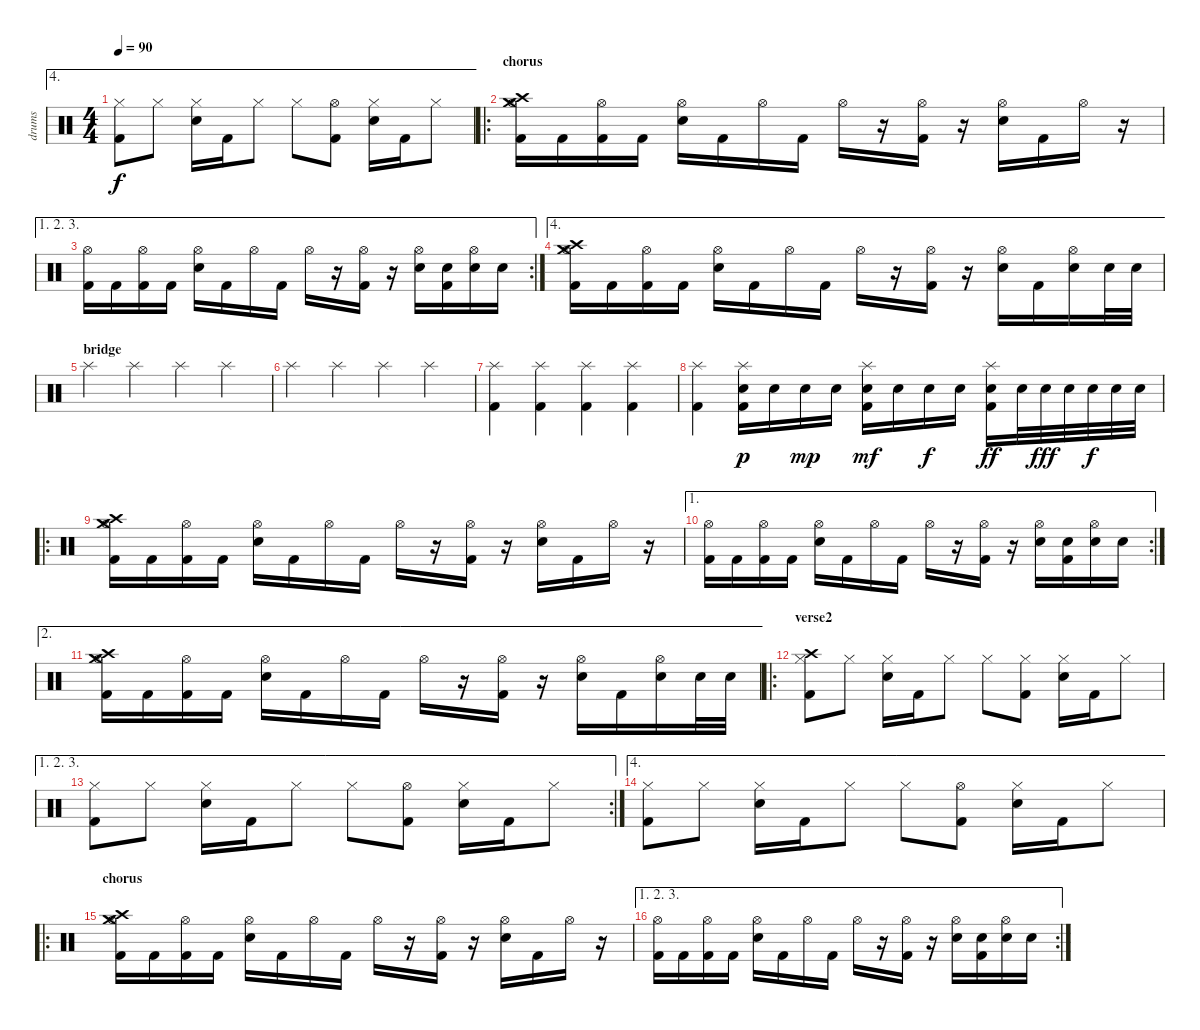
\track ("drums" "drums") {instrument percussion}
\staff {score}
\articulation defaults
\ae 4
\ts (4 4)
\tempo 90
\clef neutral
\ks c
("Hi-Hat (closed)" "Kick (hit) 2").8{dy f} "Hi-Hat (closed)".8 ("Hi-Hat (closed)" "Electric Snare (hit)").16 "Kick (hit) 2".16 "Hi-Hat (closed)".8 "Hi-Hat (closed)".8 ("Hi-Hat (open)" "Kick (hit) 2").8 ("Hi-Hat (closed)" "Electric Snare (hit)").16 "Kick (hit) 2".16 "Hi-Hat (closed)".8 |
\ro
\section ("" "chorus")
("Crash high (hit)" "Crash medium (hit)" "Hi-Hat (open)" "Kick (hit) 2").16 "Kick (hit) 2".16 ("Hi-Hat (open)" "Kick (hit) 2").16 "Kick (hit) 2".16 ("Hi-Hat (open)" "Electric Snare (hit)").16 "Kick (hit) 2".16 "Hi-Hat (open)".16 "Kick (hit) 2".16 "Hi-Hat (open)".16 r.16 ("Hi-Hat (open)" "Kick (hit) 2").16 r.16 ("Hi-Hat (open)" "Electric Snare (hit)").16 "Kick (hit) 2".16 "Hi-Hat (open)".16 r.16 |
\ae (1 2 3)
\rc 2
("Hi-Hat (open)" "Kick (hit) 2").16 "Kick (hit) 2".16 ("Hi-Hat (open)" "Kick (hit) 2").16 "Kick (hit) 2".16 ("Hi-Hat (open)" "Electric Snare (hit)").16 "Kick (hit) 2".16 "Hi-Hat (open)".16 "Kick (hit) 2".16 "Hi-Hat (open)".16 r.16 ("Hi-Hat (open)" "Kick (hit) 2").16 r.16 ("Hi-Hat (open)" "Electric Snare (hit)").16 ("Electric Snare (hit)" "Kick (hit) 2").16 ("Hi-Hat (open)" "Electric Snare (hit)").16 "Electric Snare (hit)".16 |
\ae 4
("Crash high (hit)" "Crash medium (hit)" "Hi-Hat (open)" "Kick (hit) 2").16 "Kick (hit) 2".16 ("Hi-Hat (open)" "Kick (hit) 2").16 "Kick (hit) 2".16 ("Hi-Hat (open)" "Electric Snare (hit)").16 "Kick (hit) 2".16 "Hi-Hat (open)".16 "Kick (hit) 2".16 "Hi-Hat (open)".16 r.16 ("Hi-Hat (open)" "Kick (hit) 2").16 r.16 ("Hi-Hat (open)" "Electric Snare (hit)").16 "Kick (hit) 2".16 ("Hi-Hat (open)" "Electric Snare (hit)").16 "Electric Snare (hit)".32 "Electric Snare (hit)".32 |
\section ("" "bridge")
"Splash (hit)".4 "Splash (hit)".4 "Splash (hit)".4 "Splash (hit)".4 |
"Splash (hit)".4 "Splash (hit)".4 "Splash (hit)".4 "Splash (hit)".4 |
("Splash (hit)" "Kick (hit) 2").4 ("Splash (hit)" "Kick (hit) 2").4 ("Splash (hit)" "Kick (hit) 2").4 ("Splash (hit)" "Kick (hit) 2").4 |
("Splash (hit)" "Kick (hit) 2").4 ("Splash (hit)" "Electric Snare (hit)" "Kick (hit) 2").16{dy p} "Electric Snare (hit)".16 "Electric Snare (hit)".16{dy mp} "Electric Snare (hit)".16 ("Splash (hit)" "Electric Snare (hit)" "Kick (hit) 2").16{dy mf} "Electric Snare (hit)".16 "Electric Snare (hit)".16{dy f} "Electric Snare (hit)".16 ("Splash (hit)" "Electric Snare (hit)" "Kick (hit) 2").16{dy ff} "Electric Snare (hit)".32 "Electric Snare (hit)".32{dy fff} "Electric Snare (hit)".32 "Electric Snare (hit)".32{dy f} "Electric Snare (hit)".32 "Electric Snare (hit)".32 |
\ro
("Crash high (hit)" "Crash medium (hit)" "Hi-Hat (open)" "Kick (hit) 2").16 "Kick (hit) 2".16 ("Hi-Hat (open)" "Kick (hit) 2").16 "Kick (hit) 2".16 ("Hi-Hat (open)" "Electric Snare (hit)").16 "Kick (hit) 2".16 "Hi-Hat (open)".16 "Kick (hit) 2".16 "Hi-Hat (open)".16 r.16 ("Hi-Hat (open)" "Kick (hit) 2").16 r.16 ("Hi-Hat (open)" "Electric Snare (hit)").16 "Kick (hit) 2".16 "Hi-Hat (open)".16 r.16 |
\ae 1
\rc 2
("Hi-Hat (open)" "Kick (hit) 2").16 "Kick (hit) 2".16 ("Hi-Hat (open)" "Kick (hit) 2").16 "Kick (hit) 2".16 ("Hi-Hat (open)" "Electric Snare (hit)").16 "Kick (hit) 2".16 "Hi-Hat (open)".16 "Kick (hit) 2".16 "Hi-Hat (open)".16 r.16 ("Hi-Hat (open)" "Kick (hit) 2").16 r.16 ("Hi-Hat (open)" "Electric Snare (hit)").16 ("Electric Snare (hit)" "Kick (hit) 2").16 ("Hi-Hat (open)" "Electric Snare (hit)").16 "Electric Snare (hit)".16 |
\ae 2
("Crash high (hit)" "Crash medium (hit)" "Hi-Hat (open)" "Kick (hit) 2").16 "Kick (hit) 2".16 ("Hi-Hat (open)" "Kick (hit) 2").16 "Kick (hit) 2".16 ("Hi-Hat (open)" "Electric Snare (hit)").16 "Kick (hit) 2".16 "Hi-Hat (open)".16 "Kick (hit) 2".16 "Hi-Hat (open)".16 r.16 ("Hi-Hat (open)" "Kick (hit) 2").16 r.16 ("Hi-Hat (open)" "Electric Snare (hit)").16 "Kick (hit) 2".16 ("Hi-Hat (open)" "Electric Snare (hit)").16 "Electric Snare (hit)".32 "Electric Snare (hit)".32 |
\ro
\section ("" "verse2")
("Crash high (hit)" "Hi-Hat (closed)" "Kick (hit) 2").8 "Hi-Hat (closed)".8 ("Hi-Hat (closed)" "Electric Snare (hit)").16 "Kick (hit) 2".16 "Hi-Hat (closed)".8 "Hi-Hat (closed)".8 ("Hi-Hat (closed)" "Kick (hit) 2").8 ("Hi-Hat (closed)" "Electric Snare (hit)").16 "Kick (hit) 2".16 "Hi-Hat (closed)".8 |
\ae (1 2 3)
\rc 2
("Hi-Hat (closed)" "Kick (hit) 2").8 "Hi-Hat (closed)".8 ("Hi-Hat (closed)" "Electric Snare (hit)").16 "Kick (hit) 2".16 "Hi-Hat (closed)".8 "Hi-Hat (closed)".8 ("Hi-Hat (open)" "Kick (hit) 2").8 ("Hi-Hat (closed)" "Electric Snare (hit)").16 "Kick (hit) 2".16 "Hi-Hat (closed)".8 |
\ae 4
("Hi-Hat (closed)" "Kick (hit) 2").8 "Hi-Hat (closed)".8 ("Hi-Hat (closed)" "Electric Snare (hit)").16 "Kick (hit) 2".16 "Hi-Hat (closed)".8 "Hi-Hat (closed)".8 ("Hi-Hat (open)" "Kick (hit) 2").8 ("Hi-Hat (closed)" "Electric Snare (hit)").16 "Kick (hit) 2".16 "Hi-Hat (closed)".8 |
\ro
\section ("" "chorus")
("Crash high (hit)" "Crash medium (hit)" "Hi-Hat (open)" "Kick (hit) 2").16 "Kick (hit) 2".16 ("Hi-Hat (open)" "Kick (hit) 2").16 "Kick (hit) 2".16 ("Hi-Hat (open)" "Electric Snare (hit)").16 "Kick (hit) 2".16 "Hi-Hat (open)".16 "Kick (hit) 2".16 "Hi-Hat (open)".16 r.16 ("Hi-Hat (open)" "Kick (hit) 2").16 r.16 ("Hi-Hat (open)" "Electric Snare (hit)").16 "Kick (hit) 2".16 "Hi-Hat (open)".16 r.16 |
\ae (1 2 3)
\rc 2
("Hi-Hat (open)" "Kick (hit) 2").16 "Kick (hit) 2".16 ("Hi-Hat (open)" "Kick (hit) 2").16 "Kick (hit) 2".16 ("Hi-Hat (open)" "Electric Snare (hit)").16 "Kick (hit) 2".16 "Hi-Hat (open)".16 "Kick (hit) 2".16 "Hi-Hat (open)".16 r.16 ("Hi-Hat (open)" "Kick (hit) 2").16 r.16 ("Hi-Hat (open)" "Electric Snare (hit)").16 ("Electric Snare (hit)" "Kick (hit) 2").16 ("Hi-Hat (open)" "Electric Snare (hit)").16 "Electric Snare (hit)".16
